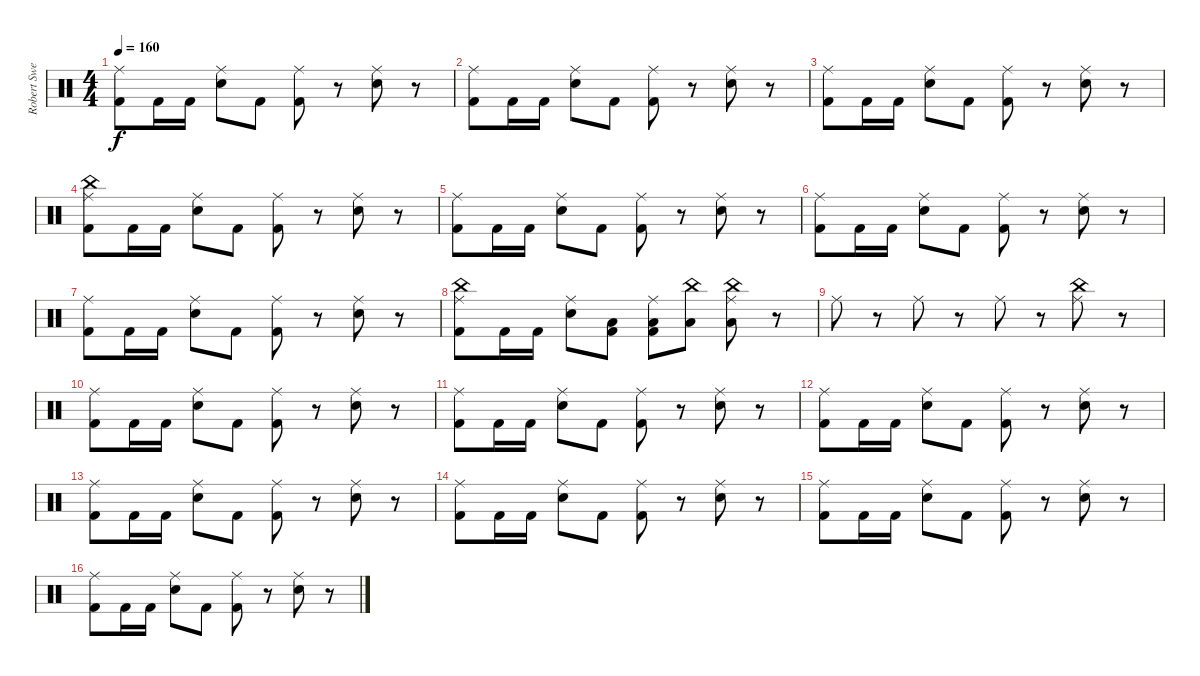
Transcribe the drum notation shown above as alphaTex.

\track ("Robert Sweet" "Robert Swe") {instrument percussion}
\staff {score}
\articulation defaults
\ts (4 4)
\tempo 160
\clef neutral
\ks c
("Ride (middle)" "Kick (hit) 2").8{dy f} "Kick (hit) 2".16 "Kick (hit) 2".16 ("Ride (middle)" "Electric Snare (hit)").8 "Kick (hit) 2".8 ("Ride (middle)" "Kick (hit) 2").8 r.8 ("Ride (middle)" "Electric Snare (hit)").8 r.8 |
("Ride (middle)" "Kick (hit) 2").8 "Kick (hit) 2".16 "Kick (hit) 2".16 ("Ride (middle)" "Electric Snare (hit)").8 "Kick (hit) 2".8 ("Ride (middle)" "Kick (hit) 2").8 r.8 ("Ride (middle)" "Electric Snare (hit)").8 r.8 |
("Ride (middle)" "Kick (hit) 2").8 "Kick (hit) 2".16 "Kick (hit) 2".16 ("Ride (middle)" "Electric Snare (hit)").8 "Kick (hit) 2".8 ("Ride (middle)" "Kick (hit) 2").8 r.8 ("Ride (middle)" "Electric Snare (hit)").8 r.8 |
("Ride (middle)" "China (hit)" "Kick (hit) 2").8 "Kick (hit) 2".16 "Kick (hit) 2".16 ("Ride (middle)" "Electric Snare (hit)").8 "Kick (hit) 2".8 ("Ride (middle)" "Kick (hit) 2").8 r.8 ("Ride (middle)" "Electric Snare (hit)").8 r.8 |
("Ride (middle)" "Kick (hit) 2").8 "Kick (hit) 2".16 "Kick (hit) 2".16 ("Ride (middle)" "Electric Snare (hit)").8 "Kick (hit) 2".8 ("Ride (middle)" "Kick (hit) 2").8 r.8 ("Ride (middle)" "Electric Snare (hit)").8 r.8 |
("Ride (middle)" "Kick (hit) 2").8 "Kick (hit) 2".16 "Kick (hit) 2".16 ("Ride (middle)" "Electric Snare (hit)").8 "Kick (hit) 2".8 ("Ride (middle)" "Kick (hit) 2").8 r.8 ("Ride (middle)" "Electric Snare (hit)").8 r.8 |
("Ride (middle)" "Kick (hit) 2").8 "Kick (hit) 2".16 "Kick (hit) 2".16 ("Ride (middle)" "Electric Snare (hit)").8 "Kick (hit) 2".8 ("Ride (middle)" "Kick (hit) 2").8 r.8 ("Ride (middle)" "Electric Snare (hit)").8 r.8 |
("Ride (middle)" "China (hit)" "Kick (hit) 2").8 "Kick (hit) 2".16 "Kick (hit) 2".16 ("Ride (middle)" "Electric Snare (hit)").8 ("Low Floor Tom (hit)" "Kick (hit) 2").8 ("Ride (middle)" "Low Floor Tom (hit)" "Kick (hit) 2").8 ("Low Floor Tom (hit)" "China (hit)").8 ("Ride (middle)" "Low Floor Tom (hit)" "China (hit)").8 r.8 |
"Ride (middle)".8 r.8 "Ride (middle)".8 r.8 "Ride (middle)".8 r.8 ("Ride (middle)" "China (hit)").8 r.8 |
("Ride (middle)" "Kick (hit) 2").8 "Kick (hit) 2".16 "Kick (hit) 2".16 ("Ride (middle)" "Electric Snare (hit)").8 "Kick (hit) 2".8 ("Ride (middle)" "Kick (hit) 2").8 r.8 ("Ride (middle)" "Electric Snare (hit)").8 r.8 |
("Ride (middle)" "Kick (hit) 2").8 "Kick (hit) 2".16 "Kick (hit) 2".16 ("Ride (middle)" "Electric Snare (hit)").8 "Kick (hit) 2".8 ("Ride (middle)" "Kick (hit) 2").8 r.8 ("Ride (middle)" "Electric Snare (hit)").8 r.8 |
("Ride (middle)" "Kick (hit) 2").8 "Kick (hit) 2".16 "Kick (hit) 2".16 ("Ride (middle)" "Electric Snare (hit)").8 "Kick (hit) 2".8 ("Ride (middle)" "Kick (hit) 2").8 r.8 ("Ride (middle)" "Electric Snare (hit)").8 r.8 |
("Ride (middle)" "Kick (hit) 2").8 "Kick (hit) 2".16 "Kick (hit) 2".16 ("Ride (middle)" "Electric Snare (hit)").8 "Kick (hit) 2".8 ("Ride (middle)" "Kick (hit) 2").8 r.8 ("Ride (middle)" "Electric Snare (hit)").8 r.8 |
("Ride (middle)" "Kick (hit) 2").8 "Kick (hit) 2".16 "Kick (hit) 2".16 ("Ride (middle)" "Electric Snare (hit)").8 "Kick (hit) 2".8 ("Ride (middle)" "Kick (hit) 2").8 r.8 ("Ride (middle)" "Electric Snare (hit)").8 r.8 |
("Ride (middle)" "Kick (hit) 2").8 "Kick (hit) 2".16 "Kick (hit) 2".16 ("Ride (middle)" "Electric Snare (hit)").8 "Kick (hit) 2".8 ("Ride (middle)" "Kick (hit) 2").8 r.8 ("Ride (middle)" "Electric Snare (hit)").8 r.8 |
("Ride (middle)" "Kick (hit) 2").8 "Kick (hit) 2".16 "Kick (hit) 2".16 ("Ride (middle)" "Electric Snare (hit)").8 "Kick (hit) 2".8 ("Ride (middle)" "Kick (hit) 2").8 r.8 ("Ride (middle)" "Electric Snare (hit)").8 r.8
